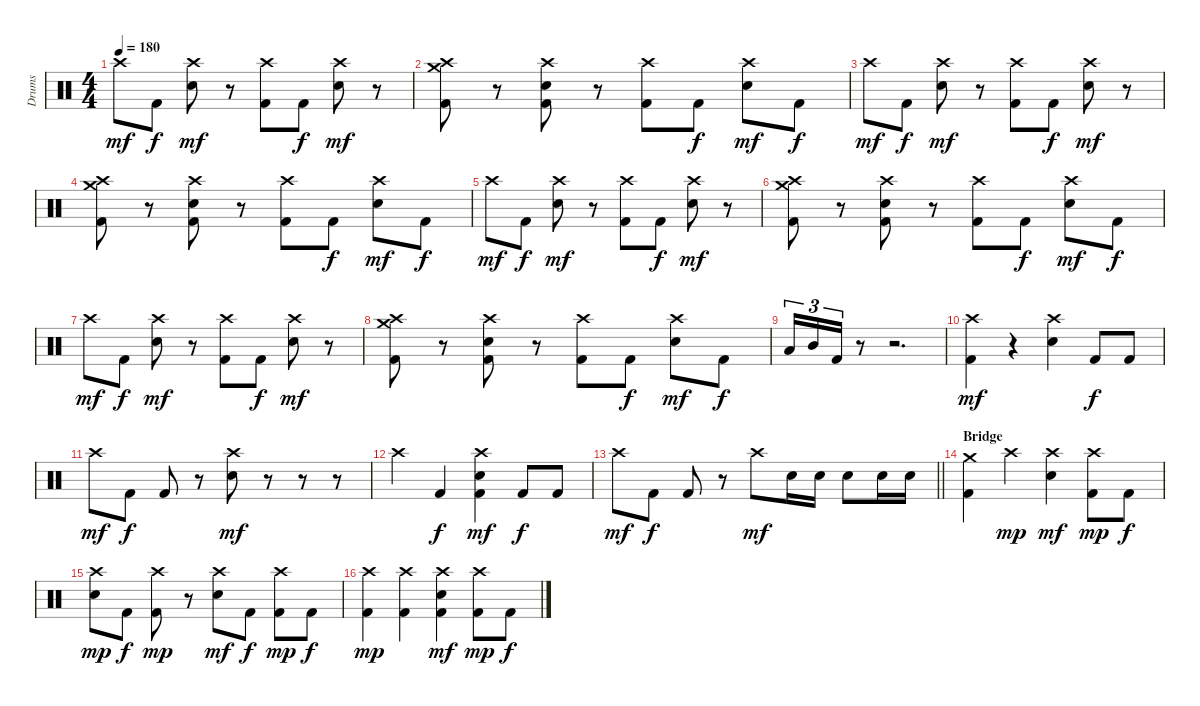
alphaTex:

\track ("Drums" "Drums") {instrument percussion}
\staff {score}
\articulation defaults
\ts (4 4)
\tempo 180
\clef neutral
\ks c "Crash high (hit)".8{dy mf} "Kick (hit) 2".8{dy f}
("Crash high (hit)" "Electric Snare (hit)").8{dy mf} r.8 ("Crash high (hit)" "Kick (hit) 2").8 "Kick (hit) 2".8{dy f} ("Crash high (hit)" "Electric Snare (hit)").8{dy mf} r.8 |
("Crash high (hit)" "Crash medium (hit)" "Kick (hit) 2").8 r.8 ("Crash high (hit)" "Electric Snare (hit)" "Kick (hit) 2").8 r.8 ("Crash high (hit)" "Kick (hit) 2").8 "Kick (hit) 2".8{dy f} ("Crash high (hit)" "Electric Snare (hit)").8{dy mf} "Kick (hit) 2".8{dy f} |
"Crash high (hit)".8{dy mf} "Kick (hit) 2".8{dy f} ("Crash high (hit)" "Electric Snare (hit)").8{dy mf} r.8 ("Crash high (hit)" "Kick (hit) 2").8 "Kick (hit) 2".8{dy f} ("Crash high (hit)" "Electric Snare (hit)").8{dy mf} r.8 |
("Crash high (hit)" "Crash medium (hit)" "Kick (hit) 2").8 r.8 ("Crash high (hit)" "Electric Snare (hit)" "Kick (hit) 2").8 r.8 ("Crash high (hit)" "Kick (hit) 2").8 "Kick (hit) 2".8{dy f} ("Crash high (hit)" "Electric Snare (hit)").8{dy mf} "Kick (hit) 2".8{dy f} |
"Crash high (hit)".8{dy mf} "Kick (hit) 2".8{dy f} ("Crash high (hit)" "Electric Snare (hit)").8{dy mf} r.8 ("Crash high (hit)" "Kick (hit) 2").8 "Kick (hit) 2".8{dy f} ("Crash high (hit)" "Electric Snare (hit)").8{dy mf} r.8 |
("Crash high (hit)" "Crash medium (hit)" "Kick (hit) 2").8 r.8 ("Crash high (hit)" "Electric Snare (hit)" "Kick (hit) 2").8 r.8 ("Crash high (hit)" "Kick (hit) 2").8 "Kick (hit) 2".8{dy f} ("Crash high (hit)" "Electric Snare (hit)").8{dy mf} "Kick (hit) 2".8{dy f} |
"Crash high (hit)".8{dy mf} "Kick (hit) 2".8{dy f} ("Crash high (hit)" "Electric Snare (hit)").8{dy mf} r.8 ("Crash high (hit)" "Kick (hit) 2").8 "Kick (hit) 2".8{dy f} ("Crash high (hit)" "Electric Snare (hit)").8{dy mf} r.8 |
("Crash high (hit)" "Crash medium (hit)" "Kick (hit) 2").8 r.8 ("Crash high (hit)" "Electric Snare (hit)" "Kick (hit) 2").8 r.8 ("Crash high (hit)" "Kick (hit) 2").8 "Kick (hit) 2".8{dy f} ("Crash high (hit)" "Electric Snare (hit)").8{dy mf} "Kick (hit) 2".8{dy f} |
"Low Tom (hit)".16{tu (3 2)} "Mid Tom (hit)".16{tu (3 2)} "Kick (hit) 2".16{tu (3 2)} r.8 r.2{d} |
("Crash high (hit)" "Kick (hit) 2").4{dy mf} r.4 ("Crash high (hit)" "Electric Snare (hit)").4 "Kick (hit) 2".8{dy f} "Kick (hit) 2".8 |
"Crash high (hit)".8{dy mf} "Kick (hit) 2".8{dy f} "Kick (hit) 2".8 r.8 ("Crash high (hit)" "Electric Snare (hit)").8{dy mf} r.8 r.8 r.8 |
"Crash high (hit)".4 "Kick (hit) 2".4{dy f} ("Crash high (hit)" "Electric Snare (hit)" "Kick (hit) 2").4{dy mf} "Kick (hit) 2".8{dy f} "Kick (hit) 2".8 |
\barLineRight lightlight "Crash high (hit)".8{dy mf} "Kick (hit) 2".8{dy f} "Kick (hit) 2".8
r.8 "Crash high (hit)".8{dy mf} "Electric Snare (hit)".16 "Electric Snare (hit)".16 "Electric Snare (hit)".8 "Electric Snare (hit)".16 "Electric Snare (hit)".16 |
\section ("" "Bridge")
("Crash medium (hit)" "Kick (hit) 2").4 "Crash high (hit)".4{dy mp} ("Crash high (hit)" "Electric Snare (hit)").4{dy mf} ("Crash high (hit)" "Kick (hit) 2").8{dy mp} "Kick (hit) 2".8{dy f} |
("Crash high (hit)" "Electric Snare (hit)").8{dy mp} "Kick (hit) 2".8{dy f} ("Crash high (hit)" "Kick (hit) 2").8{dy mp} r.8 ("Crash high (hit)" "Electric Snare (hit)").8{dy mf} "Kick (hit) 2".8{dy f} ("Crash high (hit)" "Kick (hit) 2").8{dy mp} "Kick (hit) 2".8{dy f} |
("Crash high (hit)" "Kick (hit) 2").4{dy mp} ("Crash high (hit)" "Kick (hit) 2").4 ("Crash high (hit)" "Electric Snare (hit)" "Kick (hit) 2").4{dy mf} ("Crash high (hit)" "Kick (hit) 2").8{dy mp} "Kick (hit) 2".8{dy f}
